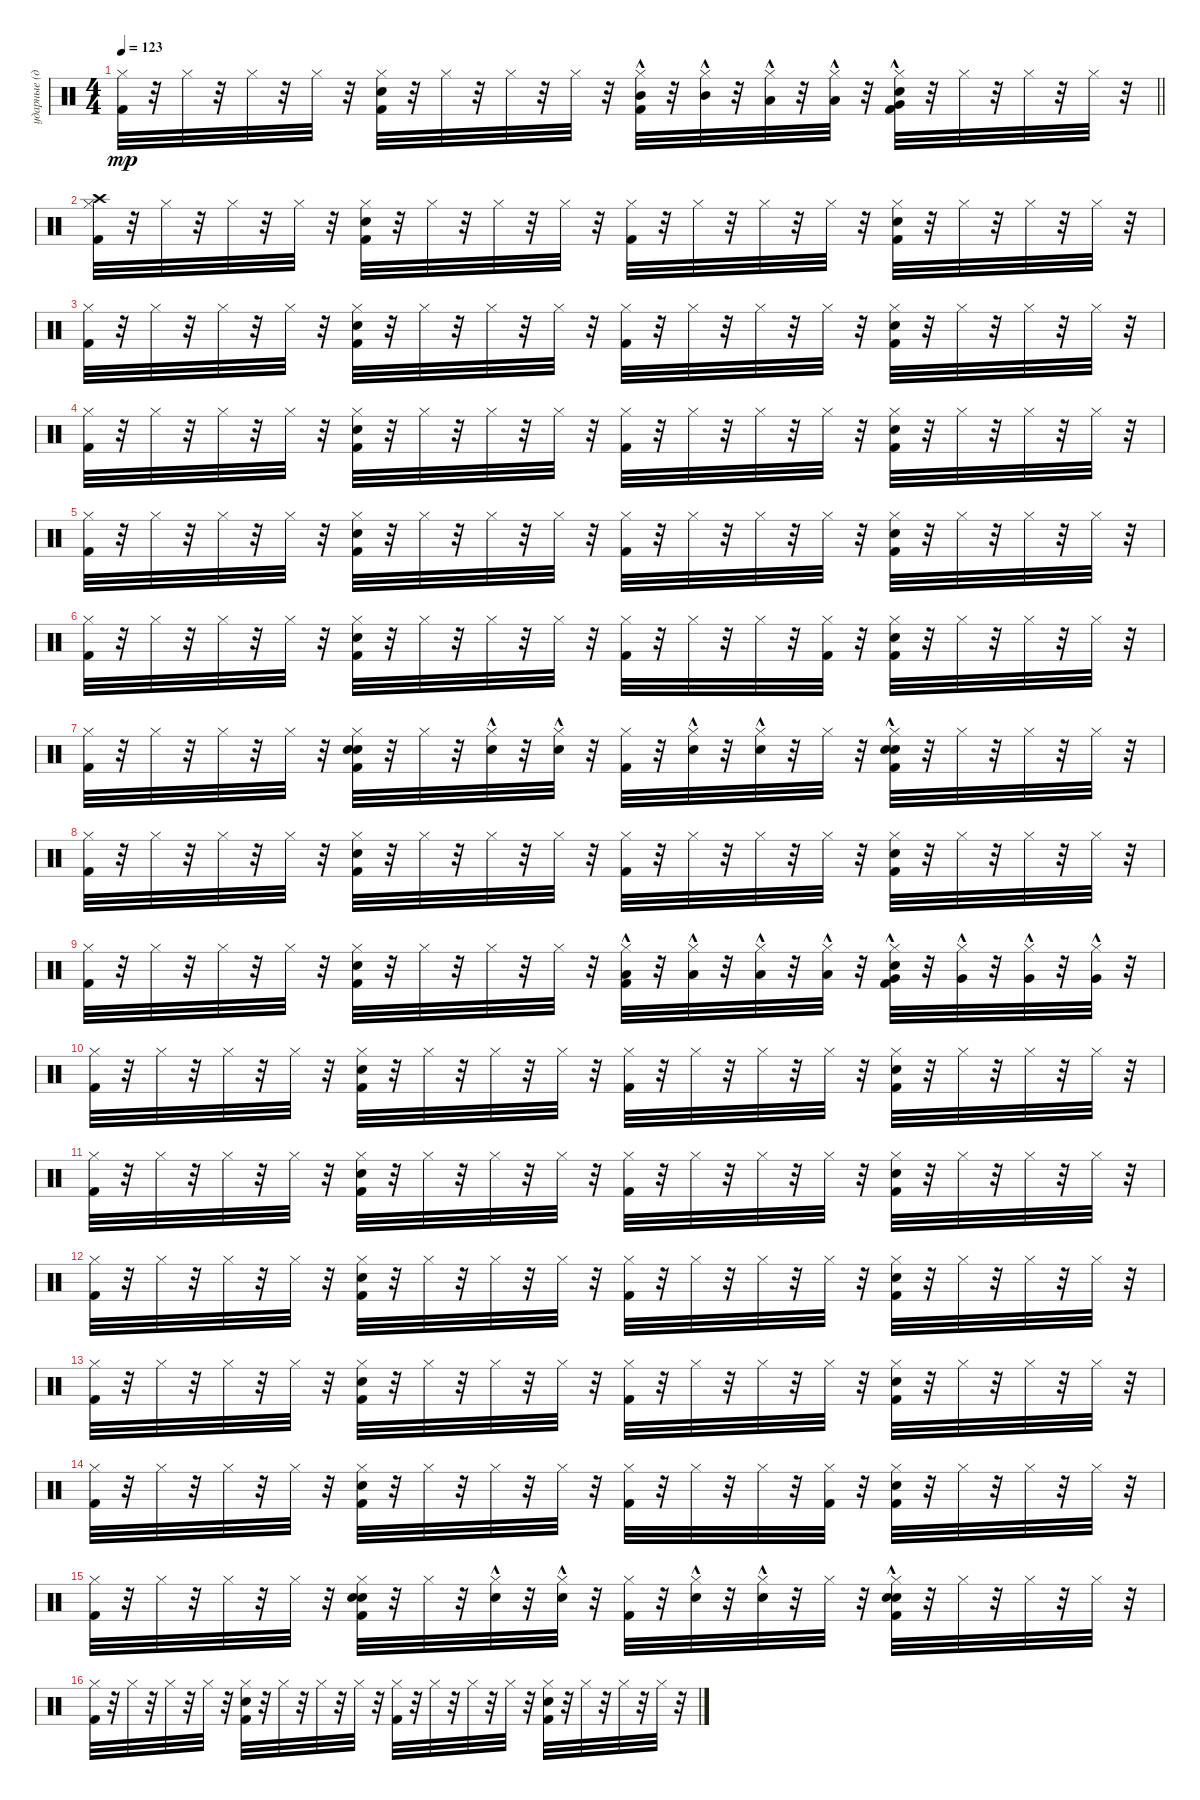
\track ("ударные (драм-машина)" "ударные (д") {instrument percussion}
\staff {score}
\articulation defaults
\ts (4 4)
\tempo 123
\clef neutral
\barLineRight lightlight
\ks c
("Kick (hit) 2" "Hi-Hat (closed)").32{dy mp} r.32 "Hi-Hat (closed)".32 r.32 "Hi-Hat (closed)".32 r.32 "Hi-Hat (closed)".32 r.32 ("Kick (hit) 2" "Snare (hit) 2" "Hi-Hat (closed)").32 r.32 "Hi-Hat (closed)".32 r.32 "Hi-Hat (closed)".32 r.32 "Hi-Hat (closed)".32 r.32 ("Mid Tom (hit)"{hac} "Kick (hit) 2" "Hi-Hat (closed)").32 r.32 ("Mid Tom (hit)"{hac} "Hi-Hat (closed)").32 r.32 ("Low Tom (hit)"{hac} "Hi-Hat (closed)").32 r.32 ("Low Tom (hit)"{hac} "Hi-Hat (closed)").32 r.32 ("Very Low Tom (hit)"{hac} "Kick (hit) 2" "Snare (hit) 2" "Hi-Hat (closed)").32 r.32 "Hi-Hat (closed)".32 r.32 "Hi-Hat (closed)".32 r.32 "Hi-Hat (closed)".32 r.32 |
("Crash high (hit)" "Kick (hit) 2" "Hi-Hat (closed)").32 r.32 "Hi-Hat (closed)".32 r.32 "Hi-Hat (closed)".32 r.32 "Hi-Hat (closed)".32 r.32 ("Kick (hit) 2" "Snare (hit) 2" "Hi-Hat (closed)").32 r.32 "Hi-Hat (closed)".32 r.32 "Hi-Hat (closed)".32 r.32 "Hi-Hat (closed)".32 r.32 ("Kick (hit) 2" "Hi-Hat (closed)").32 r.32 "Hi-Hat (closed)".32 r.32 "Hi-Hat (closed)".32 r.32 "Hi-Hat (closed)".32 r.32 ("Kick (hit) 2" "Snare (hit) 2" "Hi-Hat (closed)").32 r.32 "Hi-Hat (closed)".32 r.32 "Hi-Hat (closed)".32 r.32 "Hi-Hat (closed)".32 r.32 |
("Kick (hit) 2" "Hi-Hat (closed)").32 r.32 "Hi-Hat (closed)".32 r.32 "Hi-Hat (closed)".32 r.32 "Hi-Hat (closed)".32 r.32 ("Kick (hit) 2" "Snare (hit) 2" "Hi-Hat (closed)").32 r.32 "Hi-Hat (closed)".32 r.32 "Hi-Hat (closed)".32 r.32 "Hi-Hat (closed)".32 r.32 ("Kick (hit) 2" "Hi-Hat (closed)").32 r.32 "Hi-Hat (closed)".32 r.32 "Hi-Hat (closed)".32 r.32 "Hi-Hat (closed)".32 r.32 ("Kick (hit) 2" "Snare (hit) 2" "Hi-Hat (closed)").32 r.32 "Hi-Hat (closed)".32 r.32 "Hi-Hat (closed)".32 r.32 "Hi-Hat (closed)".32 r.32 |
("Kick (hit) 2" "Hi-Hat (closed)").32 r.32 "Hi-Hat (closed)".32 r.32 "Hi-Hat (closed)".32 r.32 "Hi-Hat (closed)".32 r.32 ("Kick (hit) 2" "Snare (hit) 2" "Hi-Hat (closed)").32 r.32 "Hi-Hat (closed)".32 r.32 "Hi-Hat (closed)".32 r.32 "Hi-Hat (closed)".32 r.32 ("Kick (hit) 2" "Hi-Hat (closed)").32 r.32 "Hi-Hat (closed)".32 r.32 "Hi-Hat (closed)".32 r.32 "Hi-Hat (closed)".32 r.32 ("Kick (hit) 2" "Snare (hit) 2" "Hi-Hat (closed)").32 r.32 "Hi-Hat (closed)".32 r.32 "Hi-Hat (closed)".32 r.32 "Hi-Hat (closed)".32 r.32 |
("Kick (hit) 2" "Hi-Hat (closed)").32 r.32 "Hi-Hat (closed)".32 r.32 "Hi-Hat (closed)".32 r.32 "Hi-Hat (closed)".32 r.32 ("Kick (hit) 2" "Snare (hit) 2" "Hi-Hat (closed)").32 r.32 "Hi-Hat (closed)".32 r.32 "Hi-Hat (closed)".32 r.32 "Hi-Hat (closed)".32 r.32 ("Kick (hit) 2" "Hi-Hat (closed)").32 r.32 "Hi-Hat (closed)".32 r.32 "Hi-Hat (closed)".32 r.32 "Hi-Hat (closed)".32 r.32 ("Kick (hit) 2" "Snare (hit) 2" "Hi-Hat (closed)").32 r.32 "Hi-Hat (closed)".32 r.32 "Hi-Hat (closed)".32 r.32 "Hi-Hat (closed)".32 r.32 |
("Kick (hit) 2" "Hi-Hat (closed)").32 r.32 "Hi-Hat (closed)".32 r.32 "Hi-Hat (closed)".32 r.32 "Hi-Hat (closed)".32 r.32 ("Kick (hit) 2" "Snare (hit) 2" "Hi-Hat (closed)").32 r.32 "Hi-Hat (closed)".32 r.32 "Hi-Hat (closed)".32 r.32 "Hi-Hat (closed)".32 r.32 ("Kick (hit) 2" "Hi-Hat (closed)").32 r.32 "Hi-Hat (closed)".32 r.32 "Hi-Hat (closed)".32 r.32 ("Kick (hit) 2" "Hi-Hat (closed)").32 r.32 ("Kick (hit) 2" "Snare (hit) 2" "Hi-Hat (closed)").32 r.32 "Hi-Hat (closed)".32 r.32 "Hi-Hat (closed)".32 r.32 "Hi-Hat (closed)".32 r.32 |
("Kick (hit) 2" "Hi-Hat (closed)").32 r.32 "Hi-Hat (closed)".32 r.32 "Hi-Hat (closed)".32 r.32 "Hi-Hat (closed)".32 r.32 ("Hand Clap (hit)" "Kick (hit) 2" "Snare (hit) 2" "Hi-Hat (closed)").32 r.32 "Hi-Hat (closed)".32 r.32 ("Hand Clap (hit)"{hac} "Hi-Hat (closed)").32 r.32 ("Hand Clap (hit)"{hac} "Hi-Hat (closed)").32 r.32 ("Kick (hit) 2" "Hi-Hat (closed)").32 r.32 ("Hand Clap (hit)"{hac} "Hi-Hat (closed)").32 r.32 ("Hand Clap (hit)"{hac} "Hi-Hat (closed)").32 r.32 "Hi-Hat (closed)".32 r.32 ("Kick (hit) 2" "Snare (hit) 2"{hac} "Hi-Hat (closed)" "Hand Clap (hit)").32 r.32 "Hi-Hat (closed)".32 r.32 "Hi-Hat (closed)".32 r.32 "Hi-Hat (closed)".32 r.32 |
("Kick (hit) 2" "Hi-Hat (closed)").32 r.32 "Hi-Hat (closed)".32 r.32 "Hi-Hat (closed)".32 r.32 "Hi-Hat (closed)".32 r.32 ("Kick (hit) 2" "Snare (hit) 2" "Hi-Hat (closed)").32 r.32 "Hi-Hat (closed)".32 r.32 "Hi-Hat (closed)".32 r.32 "Hi-Hat (closed)".32 r.32 ("Kick (hit) 2" "Hi-Hat (closed)").32 r.32 "Hi-Hat (closed)".32 r.32 "Hi-Hat (closed)".32 r.32 "Hi-Hat (closed)".32 r.32 ("Kick (hit) 2" "Snare (hit) 2" "Hi-Hat (closed)").32 r.32 "Hi-Hat (closed)".32 r.32 "Hi-Hat (closed)".32 r.32 "Hi-Hat (closed)".32 r.32 |
("Kick (hit) 2" "Hi-Hat (closed)").32 r.32 "Hi-Hat (closed)".32 r.32 "Hi-Hat (closed)".32 r.32 "Hi-Hat (closed)".32 r.32 ("Kick (hit) 2" "Snare (hit) 2" "Hi-Hat (closed)").32 r.32 "Hi-Hat (closed)".32 r.32 "Hi-Hat (closed)".32 r.32 "Hi-Hat (closed)".32 r.32 ("Low Tom (hit)"{hac} "Kick (hit) 2" "Hi-Hat (closed)").32 r.32 ("Low Tom (hit)"{hac} "Hi-Hat (closed)").32 r.32 ("Low Tom (hit)"{hac} "Hi-Hat (closed)").32 r.32 ("Low Tom (hit)"{hac} "Hi-Hat (closed)").32 r.32 ("Very Low Tom (hit)"{hac} "Kick (hit) 2" "Snare (hit) 2" "Hi-Hat (closed)").32 r.32 ("Very Low Tom (hit)"{hac} "Hi-Hat (closed)").32 r.32 ("Very Low Tom (hit)"{hac} "Hi-Hat (closed)").32 r.32 ("Very Low Tom (hit)"{hac} "Hi-Hat (closed)").32 r.32 |
("Kick (hit) 2" "Hi-Hat (closed)").32 r.32 "Hi-Hat (closed)".32 r.32 "Hi-Hat (closed)".32 r.32 "Hi-Hat (closed)".32 r.32 ("Kick (hit) 2" "Snare (hit) 2" "Hi-Hat (closed)").32 r.32 "Hi-Hat (closed)".32 r.32 "Hi-Hat (closed)".32 r.32 "Hi-Hat (closed)".32 r.32 ("Kick (hit) 2" "Hi-Hat (closed)").32 r.32 "Hi-Hat (closed)".32 r.32 "Hi-Hat (closed)".32 r.32 "Hi-Hat (closed)".32 r.32 ("Kick (hit) 2" "Snare (hit) 2" "Hi-Hat (closed)").32 r.32 "Hi-Hat (closed)".32 r.32 "Hi-Hat (closed)".32 r.32 "Hi-Hat (closed)".32 r.32 |
("Kick (hit) 2" "Hi-Hat (closed)").32 r.32 "Hi-Hat (closed)".32 r.32 "Hi-Hat (closed)".32 r.32 "Hi-Hat (closed)".32 r.32 ("Kick (hit) 2" "Snare (hit) 2" "Hi-Hat (closed)").32 r.32 "Hi-Hat (closed)".32 r.32 "Hi-Hat (closed)".32 r.32 "Hi-Hat (closed)".32 r.32 ("Kick (hit) 2" "Hi-Hat (closed)").32 r.32 "Hi-Hat (closed)".32 r.32 "Hi-Hat (closed)".32 r.32 "Hi-Hat (closed)".32 r.32 ("Kick (hit) 2" "Snare (hit) 2" "Hi-Hat (closed)").32 r.32 "Hi-Hat (closed)".32 r.32 "Hi-Hat (closed)".32 r.32 "Hi-Hat (closed)".32 r.32 |
("Kick (hit) 2" "Hi-Hat (closed)").32 r.32 "Hi-Hat (closed)".32 r.32 "Hi-Hat (closed)".32 r.32 "Hi-Hat (closed)".32 r.32 ("Kick (hit) 2" "Snare (hit) 2" "Hi-Hat (closed)").32 r.32 "Hi-Hat (closed)".32 r.32 "Hi-Hat (closed)".32 r.32 "Hi-Hat (closed)".32 r.32 ("Kick (hit) 2" "Hi-Hat (closed)").32 r.32 "Hi-Hat (closed)".32 r.32 "Hi-Hat (closed)".32 r.32 "Hi-Hat (closed)".32 r.32 ("Kick (hit) 2" "Snare (hit) 2" "Hi-Hat (closed)").32 r.32 "Hi-Hat (closed)".32 r.32 "Hi-Hat (closed)".32 r.32 "Hi-Hat (closed)".32 r.32 |
("Kick (hit) 2" "Hi-Hat (closed)").32 r.32 "Hi-Hat (closed)".32 r.32 "Hi-Hat (closed)".32 r.32 "Hi-Hat (closed)".32 r.32 ("Kick (hit) 2" "Snare (hit) 2" "Hi-Hat (closed)").32 r.32 "Hi-Hat (closed)".32 r.32 "Hi-Hat (closed)".32 r.32 "Hi-Hat (closed)".32 r.32 ("Kick (hit) 2" "Hi-Hat (closed)").32 r.32 "Hi-Hat (closed)".32 r.32 "Hi-Hat (closed)".32 r.32 "Hi-Hat (closed)".32 r.32 ("Kick (hit) 2" "Snare (hit) 2" "Hi-Hat (closed)").32 r.32 "Hi-Hat (closed)".32 r.32 "Hi-Hat (closed)".32 r.32 "Hi-Hat (closed)".32 r.32 |
("Kick (hit) 2" "Hi-Hat (closed)").32 r.32 "Hi-Hat (closed)".32 r.32 "Hi-Hat (closed)".32 r.32 "Hi-Hat (closed)".32 r.32 ("Kick (hit) 2" "Snare (hit) 2" "Hi-Hat (closed)").32 r.32 "Hi-Hat (closed)".32 r.32 "Hi-Hat (closed)".32 r.32 "Hi-Hat (closed)".32 r.32 ("Kick (hit) 2" "Hi-Hat (closed)").32 r.32 "Hi-Hat (closed)".32 r.32 "Hi-Hat (closed)".32 r.32 ("Kick (hit) 2" "Hi-Hat (closed)").32 r.32 ("Kick (hit) 2" "Snare (hit) 2" "Hi-Hat (closed)").32 r.32 "Hi-Hat (closed)".32 r.32 "Hi-Hat (closed)".32 r.32 "Hi-Hat (closed)".32 r.32 |
("Kick (hit) 2" "Hi-Hat (closed)").32 r.32 "Hi-Hat (closed)".32 r.32 "Hi-Hat (closed)".32 r.32 "Hi-Hat (closed)".32 r.32 ("Hand Clap (hit)" "Kick (hit) 2" "Snare (hit) 2" "Hi-Hat (closed)").32 r.32 "Hi-Hat (closed)".32 r.32 ("Hand Clap (hit)"{hac} "Hi-Hat (closed)").32 r.32 ("Hand Clap (hit)"{hac} "Hi-Hat (closed)").32 r.32 ("Kick (hit) 2" "Hi-Hat (closed)").32 r.32 ("Hand Clap (hit)"{hac} "Hi-Hat (closed)").32 r.32 ("Hand Clap (hit)"{hac} "Hi-Hat (closed)").32 r.32 "Hi-Hat (closed)".32 r.32 ("Kick (hit) 2" "Snare (hit) 2"{hac} "Hi-Hat (closed)" "Hand Clap (hit)").32 r.32 "Hi-Hat (closed)".32 r.32 "Hi-Hat (closed)".32 r.32 "Hi-Hat (closed)".32 r.32 |
("Kick (hit) 2" "Hi-Hat (closed)").32 r.32 "Hi-Hat (closed)".32 r.32 "Hi-Hat (closed)".32 r.32 "Hi-Hat (closed)".32 r.32 ("Kick (hit) 2" "Snare (hit) 2" "Hi-Hat (closed)").32 r.32 "Hi-Hat (closed)".32 r.32 "Hi-Hat (closed)".32 r.32 "Hi-Hat (closed)".32 r.32 ("Kick (hit) 2" "Hi-Hat (closed)").32 r.32 "Hi-Hat (closed)".32 r.32 "Hi-Hat (closed)".32 r.32 "Hi-Hat (closed)".32 r.32 ("Kick (hit) 2" "Snare (hit) 2" "Hi-Hat (closed)").32 r.32 "Hi-Hat (closed)".32 r.32 "Hi-Hat (closed)".32 r.32 "Hi-Hat (closed)".32 r.32
